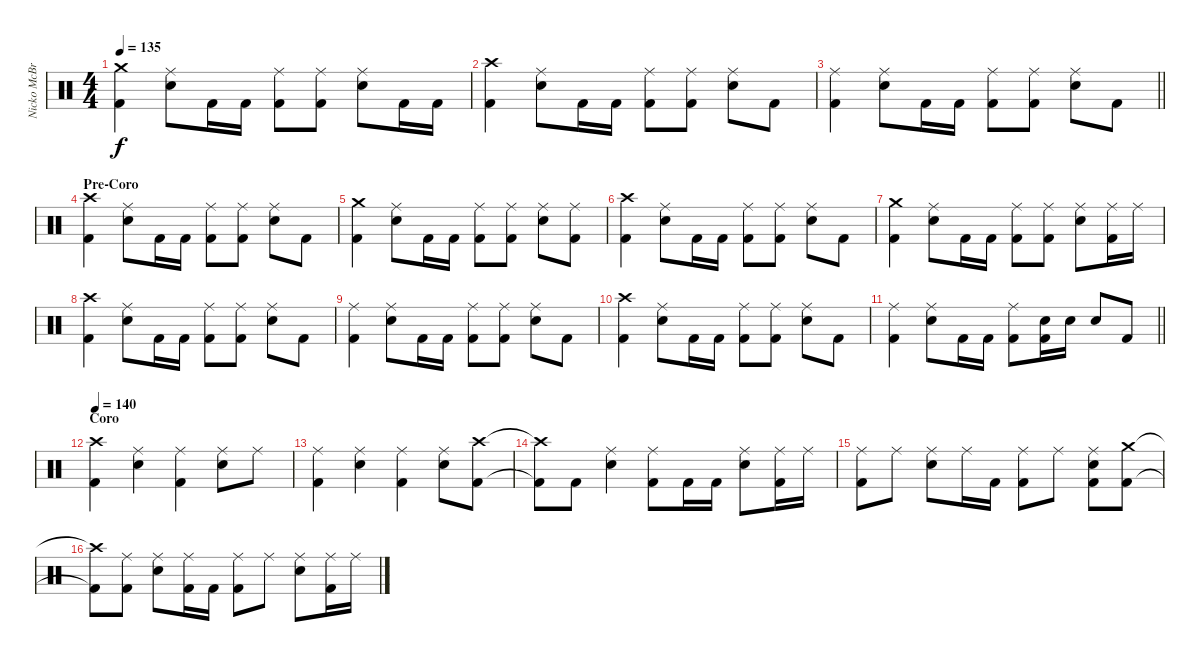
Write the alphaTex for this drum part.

\track ("Nicko McBrain" "Nicko McBr") {instrument percussion}
\staff {score}
\articulation defaults
\ts (4 4)
\tempo 135
\clef neutral
\ks c
("Crash medium (hit)" "Kick (hit) 2").4{dy f} ("Ride (middle)" "Snare (hit) 2").8 "Kick (hit) 2".16 "Kick (hit) 2".16 ("Ride (middle)" "Kick (hit) 2").8 ("Ride (middle)" "Kick (hit) 2").8 ("Ride (middle)" "Snare (hit) 2").8 "Kick (hit) 2".16 "Kick (hit) 2".16 |
("Crash high (hit)" "Kick (hit) 2").4 ("Ride (middle)" "Snare (hit) 2").8 "Kick (hit) 2".16 "Kick (hit) 2".16 ("Ride (middle)" "Kick (hit) 2").8 ("Ride (middle)" "Kick (hit) 2").8 ("Ride (middle)" "Snare (hit) 2").8 "Kick (hit) 2".8 |
\barLineRight lightlight
("Ride (middle)" "Kick (hit) 2").4 ("Ride (middle)" "Snare (hit) 2").8 "Kick (hit) 2".16 "Kick (hit) 2".16 ("Ride (middle)" "Kick (hit) 2").8 ("Ride (middle)" "Kick (hit) 2").8 ("Ride (middle)" "Snare (hit) 2").8 "Kick (hit) 2".8 |
\section ("" "Pre-Coro")
("Crash high (hit)" "Kick (hit) 2").4 ("Ride (middle)" "Snare (hit) 2").8 "Kick (hit) 2".16 "Kick (hit) 2".16 ("Ride (middle)" "Kick (hit) 2").8 ("Ride (middle)" "Kick (hit) 2").8 ("Ride (middle)" "Snare (hit) 2").8 "Kick (hit) 2".8 |
("Crash medium (hit)" "Kick (hit) 2").4 ("Ride (middle)" "Snare (hit) 2").8 "Kick (hit) 2".16 "Kick (hit) 2".16 ("Ride (middle)" "Kick (hit) 2").8 ("Ride (middle)" "Kick (hit) 2").8 ("Ride (middle)" "Snare (hit) 2").8 ("Ride (middle)" "Kick (hit) 2").8 |
("Crash high (hit)" "Kick (hit) 2").4 ("Ride (middle)" "Snare (hit) 2").8 "Kick (hit) 2".16 "Kick (hit) 2".16 ("Ride (middle)" "Kick (hit) 2").8 ("Ride (middle)" "Kick (hit) 2").8 ("Ride (middle)" "Snare (hit) 2").8 "Kick (hit) 2".8 |
("Crash medium (hit)" "Kick (hit) 2").4 ("Ride (middle)" "Snare (hit) 2").8 "Kick (hit) 2".16 "Kick (hit) 2".16 ("Ride (middle)" "Kick (hit) 2").8 ("Ride (middle)" "Kick (hit) 2").8 ("Ride (middle)" "Snare (hit) 2").8 ("Ride (middle)" "Kick (hit) 2").16 "Ride (middle)".16 |
("Crash high (hit)" "Kick (hit) 2").4 ("Ride (middle)" "Snare (hit) 2").8 "Kick (hit) 2".16 "Kick (hit) 2".16 ("Ride (middle)" "Kick (hit) 2").8 ("Ride (middle)" "Kick (hit) 2").8 ("Ride (middle)" "Snare (hit) 2").8 "Kick (hit) 2".8 |
("Ride (middle)" "Kick (hit) 2").4 ("Ride (middle)" "Snare (hit) 2").8 "Kick (hit) 2".16 "Kick (hit) 2".16 ("Ride (middle)" "Kick (hit) 2").8 ("Ride (middle)" "Kick (hit) 2").8 ("Ride (middle)" "Snare (hit) 2").8 "Kick (hit) 2".8 |
("Crash high (hit)" "Kick (hit) 2").4 ("Ride (middle)" "Snare (hit) 2").8 "Kick (hit) 2".16 "Kick (hit) 2".16 ("Ride (middle)" "Kick (hit) 2").8 ("Ride (middle)" "Kick (hit) 2").8 ("Ride (middle)" "Snare (hit) 2").8 "Kick (hit) 2".8 |
\barLineRight lightlight
("Ride (middle)" "Kick (hit) 2").4 ("Ride (middle)" "Snare (hit) 2").8 "Kick (hit) 2".16 "Kick (hit) 2".16 ("Ride (middle)" "Kick (hit) 2").8 ("Snare (hit) 2" "Kick (hit) 2").16 "Snare (hit) 2".16 "Snare (hit) 2".8 "Kick (hit) 2".8 |
\section ("" "Coro")
\tempo 140
("Crash high (hit)" "Kick (hit) 2").4 ("Ride (middle)" "Snare (hit) 2").4 ("Ride (middle)" "Kick (hit) 2").4 ("Ride (middle)" "Snare (hit) 2").8 "Ride (middle)".8 |
("Ride (middle)" "Kick (hit) 2").4 ("Ride (middle)" "Snare (hit) 2").4 ("Ride (middle)" "Kick (hit) 2").4 ("Ride (middle)" "Snare (hit) 2").8 ("Crash high (hit)" "Kick (hit) 2").8 |
("Crash high (hit)"{t} "Kick (hit) 2"{t}).8 "Kick (hit) 2".8 ("Ride (middle)" "Snare (hit) 2").4 ("Ride (middle)" "Kick (hit) 2").8 "Kick (hit) 2".16 "Kick (hit) 2".16 ("Ride (middle)" "Snare (hit) 2").8 ("Ride (middle)" "Kick (hit) 2").16 "Ride (middle)".16 |
("Ride (middle)" "Kick (hit) 2").8 "Ride (middle)".8 ("Ride (middle)" "Snare (hit) 2").8 "Ride (middle)".16 "Kick (hit) 2".16 ("Ride (middle)" "Kick (hit) 2").8 "Ride (middle)".8 ("Ride (middle)" "Snare (hit) 2" "Kick (hit) 2").8 ("Crash medium (hit)" "Kick (hit) 2").8 |
("Crash high (hit)"{t} "Kick (hit) 2"{t}).8 ("Ride (middle)" "Kick (hit) 2").8 ("Ride (middle)" "Snare (hit) 2").8 ("Ride (middle)" "Kick (hit) 2").16 "Kick (hit) 2".16 ("Ride (middle)" "Kick (hit) 2").8 "Ride (middle)".8 ("Ride (middle)" "Snare (hit) 2").8 ("Ride (middle)" "Kick (hit) 2").16 "Ride (middle)".16
